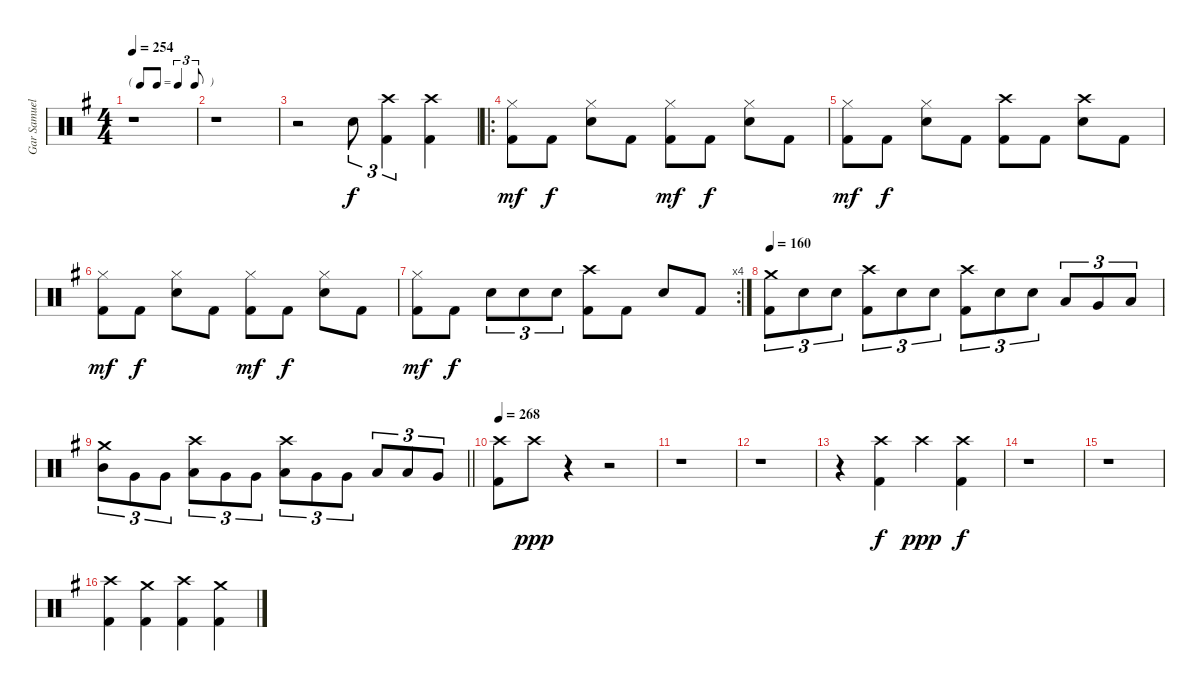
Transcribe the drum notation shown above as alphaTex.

\track ("Gar Samuelson" "Gar Samuel") {instrument percussion}
\staff {score}
\articulation defaults
\ts (4 4)
\tf triplet8th
\tempo 254
\clef neutral
\ks g
r.1{dy f} |
r.1 |
r.2 "Snare (hit) 2".8{tu (3 2)} ("Crash high (hit)" "Kick (hit) 2").4{tu (3 2)} ("Crash high (hit)" "Kick (hit) 2").4 |
\ro
("Hi-Hat (closed)" "Kick (hit) 2").8{dy mf} "Kick (hit) 2".8{dy f} ("Hi-Hat (closed)" "Snare (hit) 2").8 "Kick (hit) 2".8 ("Hi-Hat (closed)" "Kick (hit) 2").8{dy mf} "Kick (hit) 2".8{dy f} ("Hi-Hat (closed)" "Snare (hit) 2").8 "Kick (hit) 2".8 |
("Hi-Hat (closed)" "Kick (hit) 2").8{dy mf} "Kick (hit) 2".8{dy f} ("Hi-Hat (closed)" "Snare (hit) 2").8 "Kick (hit) 2".8 ("Crash high (hit)" "Kick (hit) 2").8 "Kick (hit) 2".8 ("Crash high (hit)" "Snare (hit) 2").8 "Kick (hit) 2".8 |
("Hi-Hat (closed)" "Kick (hit) 2").8{dy mf} "Kick (hit) 2".8{dy f} ("Hi-Hat (closed)" "Snare (hit) 2").8 "Kick (hit) 2".8 ("Hi-Hat (closed)" "Kick (hit) 2").8{dy mf} "Kick (hit) 2".8{dy f} ("Hi-Hat (closed)" "Snare (hit) 2").8 "Kick (hit) 2".8 |
\rc 4
("Hi-Hat (closed)" "Kick (hit) 2").8{dy mf} "Kick (hit) 2".8{dy f} "Snare (hit) 2".8{tu (3 2)} "Snare (hit) 2".8{tu (3 2)} "Snare (hit) 2".8{tu (3 2)} ("Crash high (hit)" "Kick (hit) 2").8 "Kick (hit) 2".8 "Snare (hit) 2".8 "Kick (hit) 2".8 |
\tempo 160
("Crash medium (hit)" "Kick (hit) 2").8{tu (3 2)} "Snare (hit) 2".8{tu (3 2)} "Snare (hit) 2".8{tu (3 2)} ("Crash high (hit)" "Kick (hit) 2").8{tu (3 2)} "Snare (hit) 2".8{tu (3 2)} "Snare (hit) 2".8{tu (3 2)} ("Crash high (hit)" "Kick (hit) 2").8{tu (3 2)} "Snare (hit) 2".8{tu (3 2)} "Snare (hit) 2".8{tu (3 2)} "Low Tom (hit)".8{tu (3 2)} "Very Low Tom (hit)".8{tu (3 2)} "Low Floor Tom (hit)".8{tu (3 2)} |
\barLineRight lightlight
("Crash medium (hit)" "Mid Tom (hit)").8{tu (3 2)} "Very Low Tom (hit)".8{tu (3 2)} "Very Low Tom (hit)".8{tu (3 2)} ("Crash high (hit)" "Low Tom (hit)").8{tu (3 2)} "Very Low Tom (hit)".8{tu (3 2)} "Very Low Tom (hit)".8{tu (3 2)} ("Crash high (hit)" "Low Floor Tom (hit)").8{tu (3 2)} "Very Low Tom (hit)".8{tu (3 2)} "Very Low Tom (hit)".8{tu (3 2)} "Low Tom (hit)".8{tu (3 2)} "Low Tom (hit)".8{tu (3 2)} "Very Low Tom (hit)".8{tu (3 2)} |
\tempo 268
("Crash high (hit)" "Kick (hit) 2").8 "Crash high (hit)".8{dy ppp} r.4 r.2 |
r.1 |
r.1 |
r.4 ("Crash high (hit)" "Kick (hit) 2").4{dy f} "Crash high (hit)".4{dy ppp} ("Crash high (hit)" "Kick (hit) 2").4{dy f} |
r.1 |
r.1 |
("Crash high (hit)" "Kick (hit) 2").4 ("Crash medium (hit)" "Kick (hit) 2").4 ("Crash high (hit)" "Kick (hit) 2").4 ("Crash medium (hit)" "Kick (hit) 2").4
